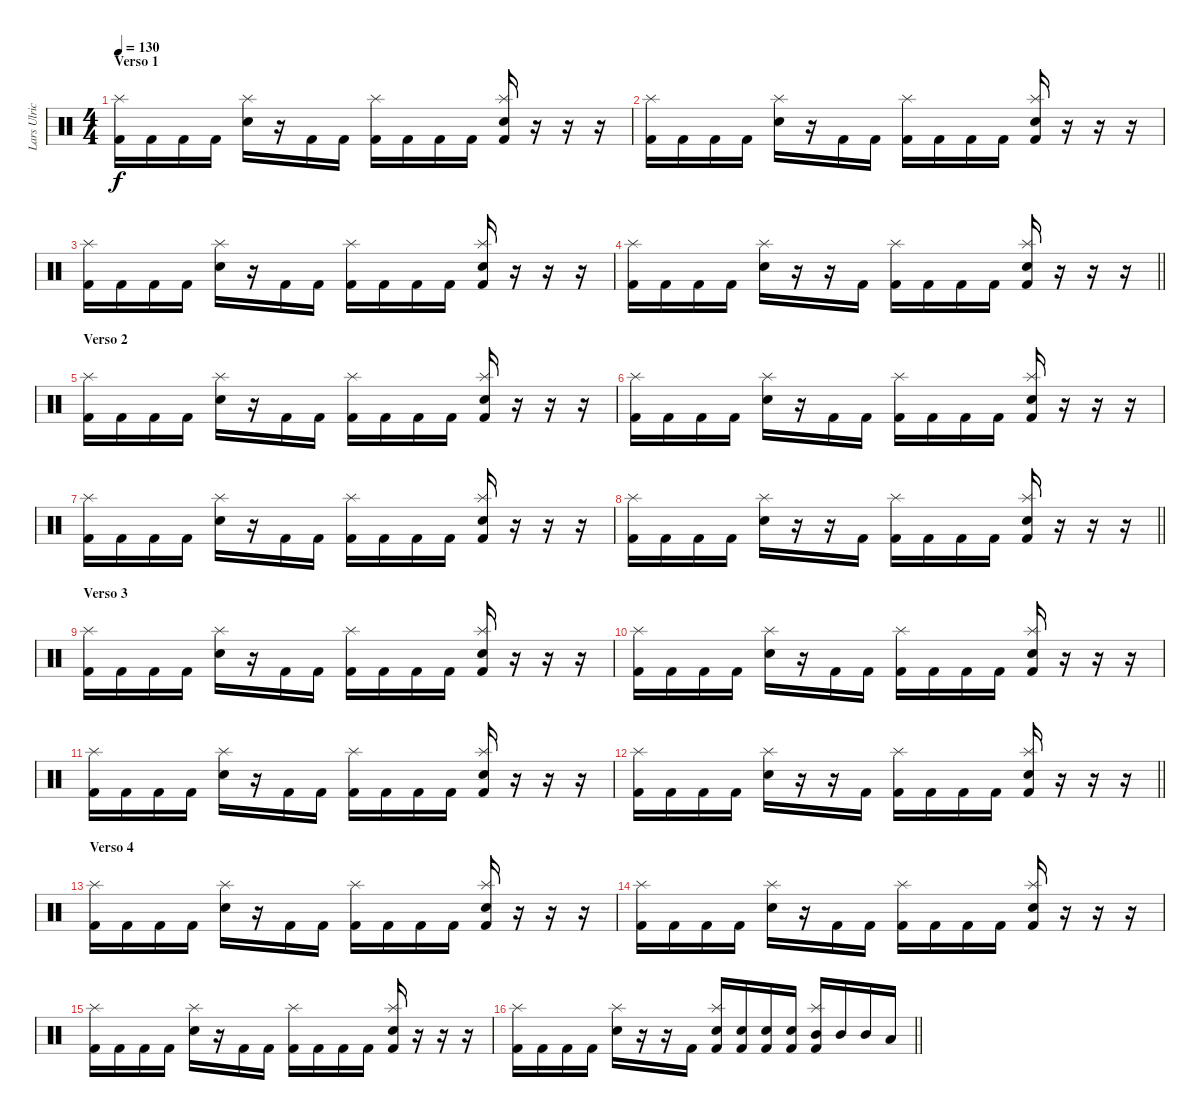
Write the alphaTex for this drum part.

\track ("Lars Ulrich" "Lars Ulric") {instrument percussion}
\staff {score}
\articulation defaults
\ts (4 4)
\section ("" "Verso 1")
\tempo 130
\clef neutral
\ks c
("Kick (hit) 2" "Splash (hit)").16{dy f} "Kick (hit) 2".16 "Kick (hit) 2".16 "Kick (hit) 2".16 ("Electric Snare (hit)" "Splash (hit)").16 r.16 "Kick (hit) 2".16 "Kick (hit) 2".16 ("Kick (hit) 2" "Splash (hit)").16 "Kick (hit) 2".16 "Kick (hit) 2".16 "Kick (hit) 2".16 ("Kick (hit) 2" "Splash (hit)" "Electric Snare (hit)").16 r.16 r.16 r.16 |
("Kick (hit) 2" "Splash (hit)").16 "Kick (hit) 2".16 "Kick (hit) 2".16 "Kick (hit) 2".16 ("Electric Snare (hit)" "Splash (hit)").16 r.16 "Kick (hit) 2".16 "Kick (hit) 2".16 ("Kick (hit) 2" "Splash (hit)").16 "Kick (hit) 2".16 "Kick (hit) 2".16 "Kick (hit) 2".16 ("Kick (hit) 2" "Splash (hit)" "Electric Snare (hit)").16 r.16 r.16 r.16 |
("Kick (hit) 2" "Splash (hit)").16 "Kick (hit) 2".16 "Kick (hit) 2".16 "Kick (hit) 2".16 ("Electric Snare (hit)" "Splash (hit)").16 r.16 "Kick (hit) 2".16 "Kick (hit) 2".16 ("Kick (hit) 2" "Splash (hit)").16 "Kick (hit) 2".16 "Kick (hit) 2".16 "Kick (hit) 2".16 ("Kick (hit) 2" "Splash (hit)" "Electric Snare (hit)").16 r.16 r.16 r.16 |
\barLineRight lightlight
("Kick (hit) 2" "Splash (hit)").16 "Kick (hit) 2".16 "Kick (hit) 2".16 "Kick (hit) 2".16 ("Electric Snare (hit)" "Splash (hit)").16 r.16 r.16 "Kick (hit) 2".16 ("Kick (hit) 2" "Splash (hit)").16 "Kick (hit) 2".16 "Kick (hit) 2".16 "Kick (hit) 2".16 ("Kick (hit) 2" "Splash (hit)" "Electric Snare (hit)").16 r.16 r.16 r.16 |
\section ("" "Verso 2")
("Kick (hit) 2" "Splash (hit)").16 "Kick (hit) 2".16 "Kick (hit) 2".16 "Kick (hit) 2".16 ("Electric Snare (hit)" "Splash (hit)").16 r.16 "Kick (hit) 2".16 "Kick (hit) 2".16 ("Kick (hit) 2" "Splash (hit)").16 "Kick (hit) 2".16 "Kick (hit) 2".16 "Kick (hit) 2".16 ("Kick (hit) 2" "Splash (hit)" "Electric Snare (hit)").16 r.16 r.16 r.16 |
("Kick (hit) 2" "Splash (hit)").16 "Kick (hit) 2".16 "Kick (hit) 2".16 "Kick (hit) 2".16 ("Electric Snare (hit)" "Splash (hit)").16 r.16 "Kick (hit) 2".16 "Kick (hit) 2".16 ("Kick (hit) 2" "Splash (hit)").16 "Kick (hit) 2".16 "Kick (hit) 2".16 "Kick (hit) 2".16 ("Kick (hit) 2" "Splash (hit)" "Electric Snare (hit)").16 r.16 r.16 r.16 |
("Kick (hit) 2" "Splash (hit)").16 "Kick (hit) 2".16 "Kick (hit) 2".16 "Kick (hit) 2".16 ("Electric Snare (hit)" "Splash (hit)").16 r.16 "Kick (hit) 2".16 "Kick (hit) 2".16 ("Kick (hit) 2" "Splash (hit)").16 "Kick (hit) 2".16 "Kick (hit) 2".16 "Kick (hit) 2".16 ("Kick (hit) 2" "Splash (hit)" "Electric Snare (hit)").16 r.16 r.16 r.16 |
\barLineRight lightlight
("Kick (hit) 2" "Splash (hit)").16 "Kick (hit) 2".16 "Kick (hit) 2".16 "Kick (hit) 2".16 ("Electric Snare (hit)" "Splash (hit)").16 r.16 r.16 "Kick (hit) 2".16 ("Kick (hit) 2" "Splash (hit)").16 "Kick (hit) 2".16 "Kick (hit) 2".16 "Kick (hit) 2".16 ("Kick (hit) 2" "Splash (hit)" "Electric Snare (hit)").16 r.16 r.16 r.16 |
\section ("" "Verso 3")
("Kick (hit) 2" "Splash (hit)").16 "Kick (hit) 2".16 "Kick (hit) 2".16 "Kick (hit) 2".16 ("Electric Snare (hit)" "Splash (hit)").16 r.16 "Kick (hit) 2".16 "Kick (hit) 2".16 ("Kick (hit) 2" "Splash (hit)").16 "Kick (hit) 2".16 "Kick (hit) 2".16 "Kick (hit) 2".16 ("Kick (hit) 2" "Splash (hit)" "Electric Snare (hit)").16 r.16 r.16 r.16 |
("Kick (hit) 2" "Splash (hit)").16 "Kick (hit) 2".16 "Kick (hit) 2".16 "Kick (hit) 2".16 ("Electric Snare (hit)" "Splash (hit)").16 r.16 "Kick (hit) 2".16 "Kick (hit) 2".16 ("Kick (hit) 2" "Splash (hit)").16 "Kick (hit) 2".16 "Kick (hit) 2".16 "Kick (hit) 2".16 ("Kick (hit) 2" "Splash (hit)" "Electric Snare (hit)").16 r.16 r.16 r.16 |
("Kick (hit) 2" "Splash (hit)").16 "Kick (hit) 2".16 "Kick (hit) 2".16 "Kick (hit) 2".16 ("Electric Snare (hit)" "Splash (hit)").16 r.16 "Kick (hit) 2".16 "Kick (hit) 2".16 ("Kick (hit) 2" "Splash (hit)").16 "Kick (hit) 2".16 "Kick (hit) 2".16 "Kick (hit) 2".16 ("Kick (hit) 2" "Splash (hit)" "Electric Snare (hit)").16 r.16 r.16 r.16 |
\barLineRight lightlight
("Kick (hit) 2" "Splash (hit)").16 "Kick (hit) 2".16 "Kick (hit) 2".16 "Kick (hit) 2".16 ("Electric Snare (hit)" "Splash (hit)").16 r.16 r.16 "Kick (hit) 2".16 ("Kick (hit) 2" "Splash (hit)").16 "Kick (hit) 2".16 "Kick (hit) 2".16 "Kick (hit) 2".16 ("Kick (hit) 2" "Splash (hit)" "Electric Snare (hit)").16 r.16 r.16 r.16 |
\section ("" "Verso 4")
("Kick (hit) 2" "Splash (hit)").16 "Kick (hit) 2".16 "Kick (hit) 2".16 "Kick (hit) 2".16 ("Electric Snare (hit)" "Splash (hit)").16 r.16 "Kick (hit) 2".16 "Kick (hit) 2".16 ("Kick (hit) 2" "Splash (hit)").16 "Kick (hit) 2".16 "Kick (hit) 2".16 "Kick (hit) 2".16 ("Kick (hit) 2" "Splash (hit)" "Electric Snare (hit)").16 r.16 r.16 r.16 |
("Kick (hit) 2" "Splash (hit)").16 "Kick (hit) 2".16 "Kick (hit) 2".16 "Kick (hit) 2".16 ("Electric Snare (hit)" "Splash (hit)").16 r.16 "Kick (hit) 2".16 "Kick (hit) 2".16 ("Kick (hit) 2" "Splash (hit)").16 "Kick (hit) 2".16 "Kick (hit) 2".16 "Kick (hit) 2".16 ("Kick (hit) 2" "Splash (hit)" "Electric Snare (hit)").16 r.16 r.16 r.16 |
("Kick (hit) 2" "Splash (hit)").16 "Kick (hit) 2".16 "Kick (hit) 2".16 "Kick (hit) 2".16 ("Electric Snare (hit)" "Splash (hit)").16 r.16 "Kick (hit) 2".16 "Kick (hit) 2".16 ("Kick (hit) 2" "Splash (hit)").16 "Kick (hit) 2".16 "Kick (hit) 2".16 "Kick (hit) 2".16 ("Kick (hit) 2" "Splash (hit)" "Electric Snare (hit)").16 r.16 r.16 r.16 |
\barLineRight lightlight
("Kick (hit) 2" "Splash (hit)").16 "Kick (hit) 2".16 "Kick (hit) 2".16 "Kick (hit) 2".16 ("Electric Snare (hit)" "Splash (hit)").16 r.16 r.16 "Kick (hit) 2".16 ("Kick (hit) 2" "Splash (hit)" "Electric Snare (hit)").16 ("Kick (hit) 2" "Electric Snare (hit)").16 ("Kick (hit) 2" "Electric Snare (hit)").16 ("Kick (hit) 2" "Electric Snare (hit)").16 ("Kick (hit) 2" "Splash (hit)" "Mid Tom (hit)").16 "Mid Tom (hit)".16 "Mid Tom (hit)".16 "Low Tom (hit)".16
